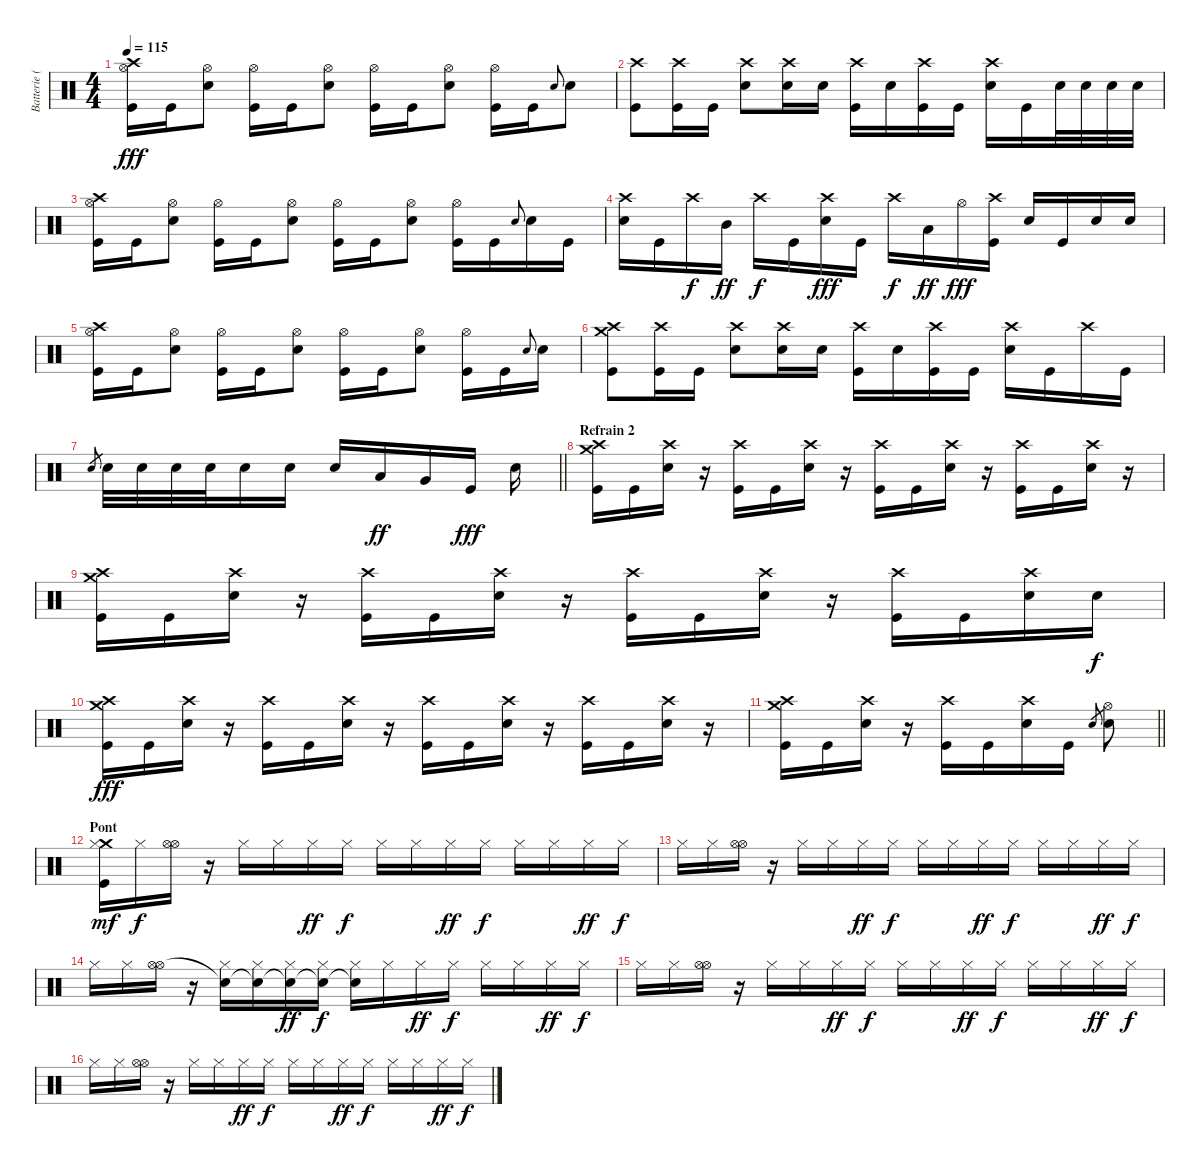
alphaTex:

\track ("Batterie (Steve)" "Batterie (") {instrument percussion}
\staff {score}
\articulation defaults
\ts (4 4)
\tempo 115
\clef neutral
\ks c
("Hi-Hat (open)" "Crash high (hit)" "Kick (hit)").16{dy fff} "Kick (hit)".16 ("Hi-Hat (open)" "Electric Snare (hit)").8 ("Hi-Hat (open)" "Kick (hit)").16 "Kick (hit)".16 ("Hi-Hat (open)" "Electric Snare (hit)").8 ("Hi-Hat (open)" "Kick (hit)").16 "Kick (hit)".16 ("Hi-Hat (open)" "Electric Snare (hit)").8 ("Hi-Hat (open)" "Kick (hit)").16 "Kick (hit)".16 "Electric Snare (hit)".8{gr onbeat} "Electric Snare (hit)".8 |
("Crash high (hit)" "Kick (hit)").8 ("Crash high (hit)" "Kick (hit)").16 "Kick (hit)".16 ("Crash high (hit)" "Electric Snare (hit)").8 ("Crash high (hit)" "Electric Snare (hit)").16 "Electric Snare (hit)".16 ("Crash high (hit)" "Kick (hit)").16 "Electric Snare (hit)".16 ("Crash high (hit)" "Kick (hit)").16 "Kick (hit)".16 ("Crash high (hit)" "Electric Snare (hit)").16 "Kick (hit)".16 "Electric Snare (hit)".32 "Electric Snare (hit)".32 "Electric Snare (hit)".32 "Electric Snare (hit)".32 |
("Hi-Hat (open)" "Crash high (hit)" "Kick (hit)").16 "Kick (hit)".16 ("Hi-Hat (open)" "Electric Snare (hit)").8 ("Hi-Hat (open)" "Kick (hit)").16 "Kick (hit)".16 ("Hi-Hat (open)" "Electric Snare (hit)").8 ("Hi-Hat (open)" "Kick (hit)").16 "Kick (hit)".16 ("Hi-Hat (open)" "Electric Snare (hit)").8 ("Hi-Hat (open)" "Kick (hit)").16 "Kick (hit)".16 "Electric Snare (hit)".8{gr onbeat} "Electric Snare (hit)".16 "Kick (hit)".16 |
("Crash high (hit)" "Electric Snare (hit)").16 "Kick (hit)".16 "Crash high (hit)".16{dy f} "Mid Tom (hit)".16{dy ff} "Crash high (hit)".16{dy f} "Kick (hit)".16 ("Crash high (hit)" "Electric Snare (hit)").16{dy fff} "Kick (hit)".16 "Crash high (hit)".16{dy f} "Low Tom (hit)".16{dy ff} "Hi-Hat (open)".16{dy fff} ("Crash high (hit)" "Kick (hit)").16 "Electric Snare (hit)".16 "Kick (hit)".16 "Electric Snare (hit)".16 "Electric Snare (hit)".16 |
("Hi-Hat (open)" "Crash high (hit)" "Kick (hit)").16 "Kick (hit)".16 ("Hi-Hat (open)" "Electric Snare (hit)").8 ("Hi-Hat (open)" "Kick (hit)").16 "Kick (hit)".16 ("Hi-Hat (open)" "Electric Snare (hit)").8 ("Hi-Hat (open)" "Kick (hit)").16 "Kick (hit)".16 ("Hi-Hat (open)" "Electric Snare (hit)").8 ("Hi-Hat (open)" "Kick (hit)").16 "Kick (hit)".16 "Electric Snare (hit)".8{gr onbeat} "Electric Snare (hit)".16 |
("Crash medium (hit)" "Crash high (hit)" "Kick (hit)").8 ("Crash high (hit)" "Kick (hit)").16 "Kick (hit)".16 ("Crash high (hit)" "Electric Snare (hit)").8 ("Crash high (hit)" "Electric Snare (hit)").16 "Electric Snare (hit)".16 ("Crash high (hit)" "Kick (hit)").16 "Electric Snare (hit)".16 ("Crash high (hit)" "Kick (hit)").16 "Kick (hit)".16 ("Crash high (hit)" "Electric Snare (hit)").16 "Kick (hit)".16 "Crash high (hit)".16 "Kick (hit)".16 |
\barLineRight lightlight "Electric Snare (hit)".8{gr} "Electric Snare (hit)".32 "Electric Snare (hit)".32 "Electric Snare (hit)".32 "Electric Snare (hit)".32 "Electric Snare (hit)".16 "Electric Snare (hit)".16 "Electric Snare (hit)".16 "Low Tom (hit)".16{dy ff} "Very Low Tom (hit)".16 "Kick (hit)".16{dy fff} "Electric Snare (hit)".16
|
\section ("" "Refrain 2")
("Crash medium (hit)" "Crash high (hit)" "Kick (hit)").16 "Kick (hit)".16 ("Crash high (hit)" "Electric Snare (hit)").16 r.16 ("Crash high (hit)" "Kick (hit)").16 "Kick (hit)".16 ("Crash high (hit)" "Electric Snare (hit)").16 r.16 ("Crash high (hit)" "Kick (hit)").16 "Kick (hit)".16 ("Crash high (hit)" "Electric Snare (hit)").16 r.16 ("Crash high (hit)" "Kick (hit)").16 "Kick (hit)".16 ("Crash high (hit)" "Electric Snare (hit)").16 r.16 |
("Crash medium (hit)" "Crash high (hit)" "Kick (hit)").16 "Kick (hit)".16 ("Crash high (hit)" "Electric Snare (hit)").16 r.16 ("Crash high (hit)" "Kick (hit)").16 "Kick (hit)".16 ("Crash high (hit)" "Electric Snare (hit)").16 r.16 ("Crash high (hit)" "Kick (hit)").16 "Kick (hit)".16 ("Crash high (hit)" "Electric Snare (hit)").16 r.16 ("Crash high (hit)" "Kick (hit)").16 "Kick (hit)".16 ("Crash high (hit)" "Electric Snare (hit)").16 "Electric Snare (hit)".16{dy f} |
("Crash medium (hit)" "Crash high (hit)" "Kick (hit)").16{dy fff} "Kick (hit)".16 ("Crash high (hit)" "Electric Snare (hit)").16 r.16 ("Crash high (hit)" "Kick (hit)").16 "Kick (hit)".16 ("Crash high (hit)" "Electric Snare (hit)").16 r.16 ("Crash high (hit)" "Kick (hit)").16 "Kick (hit)".16 ("Crash high (hit)" "Electric Snare (hit)").16 r.16 ("Crash high (hit)" "Kick (hit)").16 "Kick (hit)".16 ("Crash high (hit)" "Electric Snare (hit)").16 r.16 |
\barLineRight lightlight
("Crash medium (hit)" "Crash high (hit)" "Kick (hit)").16 "Kick (hit)".16 ("Crash high (hit)" "Electric Snare (hit)").16 r.16 ("Crash high (hit)" "Kick (hit)").16 "Kick (hit)".16 ("Crash high (hit)" "Electric Snare (hit)").16 "Kick (hit)".16 "Electric Snare (hit)".8{gr} ("Hi-Hat (open)" "Electric Snare (hit)").8 |
\section ("" "Pont")
("Crash medium (hit)" "Hi-Hat (closed)" "Kick (hit)").16{dy mf} "Hi-Hat (closed)".16{dy f} ("Hi-Hat (open)" "Hi-Hat (open)").16 r.16 "Hi-Hat (closed)".16 "Hi-Hat (closed)".16 "Hi-Hat (closed)".16{dy ff} "Hi-Hat (closed)".16{dy f} "Hi-Hat (closed)".16 "Hi-Hat (closed)".16 "Hi-Hat (closed)".16{dy ff} "Hi-Hat (closed)".16{dy f} "Hi-Hat (closed)".16 "Hi-Hat (closed)".16 "Hi-Hat (closed)".16{dy ff} "Hi-Hat (closed)".16{dy f} |
"Hi-Hat (closed)".16 "Hi-Hat (closed)".16 ("Hi-Hat (open)" "Hi-Hat (open)").16 r.16 "Hi-Hat (closed)".16 "Hi-Hat (closed)".16 "Hi-Hat (closed)".16{dy ff} "Hi-Hat (closed)".16{dy f} "Hi-Hat (closed)".16 "Hi-Hat (closed)".16 "Hi-Hat (closed)".16{dy ff} "Hi-Hat (closed)".16{dy f} "Hi-Hat (closed)".16 "Hi-Hat (closed)".16 "Hi-Hat (closed)".16{dy ff} "Hi-Hat (closed)".16{dy f} |
"Hi-Hat (closed)".16 "Hi-Hat (closed)".16 ("Hi-Hat (open)" "Hi-Hat (open)").16 r.16 ("Snare (hit)"{t} "Hi-Hat (closed)").16 ("Snare (hit)"{t} "Hi-Hat (closed)").16 ("Snare (hit)"{t} "Hi-Hat (closed)").16{dy ff} ("Snare (hit)"{t} "Hi-Hat (closed)").16{dy f} ("Snare (hit)"{t} "Hi-Hat (closed)").16 "Hi-Hat (closed)".16 "Hi-Hat (closed)".16{dy ff} "Hi-Hat (closed)".16{dy f} "Hi-Hat (closed)".16 "Hi-Hat (closed)".16 "Hi-Hat (closed)".16{dy ff} "Hi-Hat (closed)".16{dy f} |
"Hi-Hat (closed)".16 "Hi-Hat (closed)".16 ("Hi-Hat (open)" "Hi-Hat (open)").16 r.16 "Hi-Hat (closed)".16 "Hi-Hat (closed)".16 "Hi-Hat (closed)".16{dy ff} "Hi-Hat (closed)".16{dy f} "Hi-Hat (closed)".16 "Hi-Hat (closed)".16 "Hi-Hat (closed)".16{dy ff} "Hi-Hat (closed)".16{dy f} "Hi-Hat (closed)".16 "Hi-Hat (closed)".16 "Hi-Hat (closed)".16{dy ff} "Hi-Hat (closed)".16{dy f} |
"Hi-Hat (closed)".16 "Hi-Hat (closed)".16 ("Hi-Hat (open)" "Hi-Hat (open)").16 r.16 "Hi-Hat (closed)".16 "Hi-Hat (closed)".16 "Hi-Hat (closed)".16{dy ff} "Hi-Hat (closed)".16{dy f} "Hi-Hat (closed)".16 "Hi-Hat (closed)".16 "Hi-Hat (closed)".16{dy ff} "Hi-Hat (closed)".16{dy f} "Hi-Hat (closed)".16 "Hi-Hat (closed)".16 "Hi-Hat (closed)".16{dy ff} "Hi-Hat (closed)".16{dy f}
